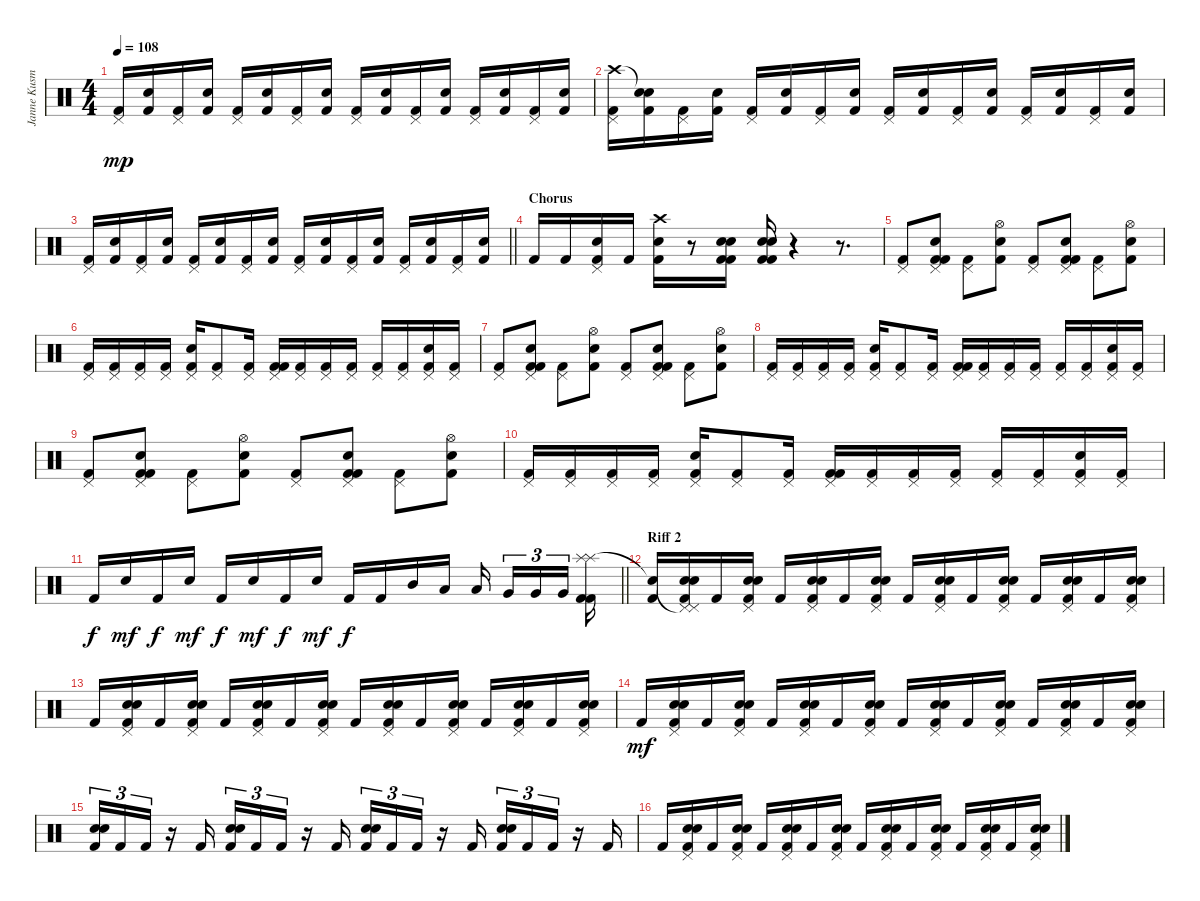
\track ("Janne Kusmin" "Janne Kusm") {instrument percussion}
\staff {score}
\articulation defaults
\ts (4 4)
\tempo 108
\clef neutral
\ks c
("Pedal Hi-Hat (hit)" "Kick (hit) 2").16{dy mp} ("Snare (hit) 2" "Kick (hit) 2").16 ("Pedal Hi-Hat (hit)" "Kick (hit) 2").16 ("Snare (hit) 2" "Kick (hit) 2").16 ("Pedal Hi-Hat (hit)" "Kick (hit) 2").16 ("Snare (hit) 2" "Kick (hit) 2").16 ("Pedal Hi-Hat (hit)" "Kick (hit) 2").16 ("Snare (hit) 2" "Kick (hit) 2").16 ("Pedal Hi-Hat (hit)" "Kick (hit) 2").16 ("Snare (hit) 2" "Kick (hit) 2").16 ("Pedal Hi-Hat (hit)" "Kick (hit) 2").16 ("Snare (hit) 2" "Kick (hit) 2").16 ("Pedal Hi-Hat (hit)" "Kick (hit) 2").16 ("Snare (hit) 2" "Kick (hit) 2").16 ("Pedal Hi-Hat (hit)" "Kick (hit) 2").16 ("Snare (hit) 2" "Kick (hit) 2").16 |
("Crash high (hit)" "Pedal Hi-Hat (hit)" "Kick (hit) 2").16 ("Snare (hit)"{t} "Snare (hit) 2" "Kick (hit) 2").16 ("Pedal Hi-Hat (hit)" "Kick (hit) 2").16 ("Snare (hit) 2" "Kick (hit) 2").16 ("Pedal Hi-Hat (hit)" "Kick (hit) 2").16 ("Snare (hit) 2" "Kick (hit) 2").16 ("Pedal Hi-Hat (hit)" "Kick (hit) 2").16 ("Snare (hit) 2" "Kick (hit) 2").16 ("Pedal Hi-Hat (hit)" "Kick (hit) 2").16 ("Snare (hit) 2" "Kick (hit) 2").16 ("Pedal Hi-Hat (hit)" "Kick (hit) 2").16 ("Snare (hit) 2" "Kick (hit) 2").16 ("Pedal Hi-Hat (hit)" "Kick (hit) 2").16 ("Snare (hit) 2" "Kick (hit) 2").16 ("Pedal Hi-Hat (hit)" "Kick (hit) 2").16 ("Snare (hit) 2" "Kick (hit) 2").16 |
\barLineRight lightlight
("Pedal Hi-Hat (hit)" "Kick (hit) 2").16 ("Snare (hit) 2" "Kick (hit) 2").16 ("Pedal Hi-Hat (hit)" "Kick (hit) 2").16 ("Snare (hit) 2" "Kick (hit) 2").16 ("Pedal Hi-Hat (hit)" "Kick (hit) 2").16 ("Snare (hit) 2" "Kick (hit) 2").16 ("Pedal Hi-Hat (hit)" "Kick (hit) 2").16 ("Snare (hit) 2" "Kick (hit) 2").16 ("Pedal Hi-Hat (hit)" "Kick (hit) 2").16 ("Snare (hit) 2" "Kick (hit) 2").16 ("Pedal Hi-Hat (hit)" "Kick (hit) 2").16 ("Snare (hit) 2" "Kick (hit) 2").16 ("Pedal Hi-Hat (hit)" "Kick (hit) 2").16 ("Snare (hit) 2" "Kick (hit) 2").16 ("Pedal Hi-Hat (hit)" "Kick (hit) 2").16 ("Snare (hit) 2" "Kick (hit) 2").16 |
\section ("" "Chorus")
"Kick (hit) 2".16 "Kick (hit) 2".16 ("Pedal Hi-Hat (hit)" "Snare (hit) 2" "Kick (hit) 2").16 "Kick (hit) 2".16 ("Crash high (hit)" "Snare (hit) 2" "Kick (hit) 2").16 r.8 ("Snare (hit) 2" "Snare (hit) 2" "Kick (hit) 2" "Kick (hit) 2").16 ("Snare (hit) 2" "Snare (hit) 2" "Kick (hit) 2" "Kick (hit) 2").16 r.4 r.8{d} |
("Pedal Hi-Hat (hit)" "Kick (hit) 2").8 ("Pedal Hi-Hat (hit)" "Snare (hit) 2" "Kick (hit) 2" "Kick (hit) 2").8 ("Pedal Hi-Hat (hit)" "Kick (hit) 2").8 ("Hi-Hat (open)" "Snare (hit) 2" "Kick (hit) 2").8 ("Pedal Hi-Hat (hit)" "Kick (hit) 2").8 ("Pedal Hi-Hat (hit)" "Snare (hit) 2" "Kick (hit) 2" "Kick (hit) 2").8 ("Pedal Hi-Hat (hit)" "Kick (hit) 2").8 ("Hi-Hat (open)" "Snare (hit) 2" "Kick (hit) 2").8 |
("Pedal Hi-Hat (hit)" "Kick (hit) 2").16 ("Pedal Hi-Hat (hit)" "Kick (hit) 2").16 ("Pedal Hi-Hat (hit)" "Kick (hit) 2").16 ("Pedal Hi-Hat (hit)" "Kick (hit) 2").16 ("Pedal Hi-Hat (hit)" "Snare (hit) 2" "Kick (hit) 2").16 ("Pedal Hi-Hat (hit)" "Kick (hit) 2").8 ("Pedal Hi-Hat (hit)" "Kick (hit) 2").16 ("Pedal Hi-Hat (hit)" "Kick (hit) 2" "Kick (hit) 2").16 ("Pedal Hi-Hat (hit)" "Kick (hit) 2").16 ("Pedal Hi-Hat (hit)" "Kick (hit) 2").16 ("Pedal Hi-Hat (hit)" "Kick (hit) 2").16 ("Pedal Hi-Hat (hit)" "Kick (hit) 2").16 ("Pedal Hi-Hat (hit)" "Kick (hit) 2").16 ("Pedal Hi-Hat (hit)" "Snare (hit) 2" "Kick (hit) 2").16 ("Pedal Hi-Hat (hit)" "Kick (hit) 2").16 |
("Pedal Hi-Hat (hit)" "Kick (hit) 2").8 ("Pedal Hi-Hat (hit)" "Snare (hit) 2" "Kick (hit) 2" "Kick (hit) 2").8 ("Pedal Hi-Hat (hit)" "Kick (hit) 2").8 ("Hi-Hat (open)" "Snare (hit) 2" "Kick (hit) 2").8 ("Pedal Hi-Hat (hit)" "Kick (hit) 2").8 ("Pedal Hi-Hat (hit)" "Snare (hit) 2" "Kick (hit) 2" "Kick (hit) 2").8 ("Pedal Hi-Hat (hit)" "Kick (hit) 2").8 ("Hi-Hat (open)" "Snare (hit) 2" "Kick (hit) 2").8 |
("Pedal Hi-Hat (hit)" "Kick (hit) 2").16 ("Pedal Hi-Hat (hit)" "Kick (hit) 2").16 ("Pedal Hi-Hat (hit)" "Kick (hit) 2").16 ("Pedal Hi-Hat (hit)" "Kick (hit) 2").16 ("Pedal Hi-Hat (hit)" "Snare (hit) 2" "Kick (hit) 2").16 ("Pedal Hi-Hat (hit)" "Kick (hit) 2").8 ("Pedal Hi-Hat (hit)" "Kick (hit) 2").16 ("Pedal Hi-Hat (hit)" "Kick (hit) 2" "Kick (hit) 2").16 ("Pedal Hi-Hat (hit)" "Kick (hit) 2").16 ("Pedal Hi-Hat (hit)" "Kick (hit) 2").16 ("Pedal Hi-Hat (hit)" "Kick (hit) 2").16 ("Pedal Hi-Hat (hit)" "Kick (hit) 2").16 ("Pedal Hi-Hat (hit)" "Kick (hit) 2").16 ("Pedal Hi-Hat (hit)" "Snare (hit) 2" "Kick (hit) 2").16 ("Pedal Hi-Hat (hit)" "Kick (hit) 2").16 |
("Pedal Hi-Hat (hit)" "Kick (hit) 2").8 ("Pedal Hi-Hat (hit)" "Snare (hit) 2" "Kick (hit) 2" "Kick (hit) 2").8 ("Pedal Hi-Hat (hit)" "Kick (hit) 2").8 ("Hi-Hat (open)" "Snare (hit) 2" "Kick (hit) 2").8 ("Pedal Hi-Hat (hit)" "Kick (hit) 2").8 ("Pedal Hi-Hat (hit)" "Snare (hit) 2" "Kick (hit) 2" "Kick (hit) 2").8 ("Pedal Hi-Hat (hit)" "Kick (hit) 2").8 ("Hi-Hat (open)" "Snare (hit) 2" "Kick (hit) 2").8 |
("Pedal Hi-Hat (hit)" "Kick (hit) 2").16 ("Pedal Hi-Hat (hit)" "Kick (hit) 2").16 ("Pedal Hi-Hat (hit)" "Kick (hit) 2").16 ("Pedal Hi-Hat (hit)" "Kick (hit) 2").16 ("Pedal Hi-Hat (hit)" "Snare (hit) 2" "Kick (hit) 2").16 ("Pedal Hi-Hat (hit)" "Kick (hit) 2").8 ("Pedal Hi-Hat (hit)" "Kick (hit) 2").16 ("Pedal Hi-Hat (hit)" "Kick (hit) 2" "Kick (hit) 2").16 ("Pedal Hi-Hat (hit)" "Kick (hit) 2").16 ("Pedal Hi-Hat (hit)" "Kick (hit) 2").16 ("Pedal Hi-Hat (hit)" "Kick (hit) 2").16 ("Pedal Hi-Hat (hit)" "Kick (hit) 2").16 ("Pedal Hi-Hat (hit)" "Kick (hit) 2").16 ("Pedal Hi-Hat (hit)" "Snare (hit) 2" "Kick (hit) 2").16 ("Pedal Hi-Hat (hit)" "Kick (hit) 2").16 |
\barLineRight lightlight "Kick (hit) 2".16{dy f} "Snare (hit) 2".16{dy mf} "Kick (hit) 2".16{dy f} "Snare (hit) 2".16{dy mf} "Kick (hit) 2".16{dy f} "Snare (hit) 2".16{dy mf} "Kick (hit) 2".16{dy f} "Snare (hit) 2".16{dy mf} "Kick (hit) 2".16{dy f} "Kick (hit) 2".16 "Mid Tom (hit)".16 "Low Tom (hit)".16 "Low Tom (hit)".16{beam splitsecondary} "Very Low Tom (hit)".16{tu (3 2)} "Very Low Tom (hit)".16{tu (3 2)} "Very Low Tom (hit)".16{tu (3 2) beam splitsecondary}
("Splash (hit)" "Splash (hit)" "Kick (hit) 2" "Kick (hit) 2").16 |
\section ("" "Riff 2")
("Snare (hit)"{t} "Kick (hit) 2").16 ("Pedal Hi-Hat (hit)"{t} "Pedal Hi-Hat (hit)" "Snare (hit) 2" "Snare (hit) 2" "Kick (hit) 2").16 "Kick (hit) 2".16 ("Pedal Hi-Hat (hit)" "Snare (hit) 2" "Snare (hit) 2" "Kick (hit) 2").16 "Kick (hit) 2".16 ("Pedal Hi-Hat (hit)" "Snare (hit) 2" "Snare (hit) 2" "Kick (hit) 2").16 "Kick (hit) 2".16 ("Pedal Hi-Hat (hit)" "Snare (hit) 2" "Snare (hit) 2" "Kick (hit) 2").16 "Kick (hit) 2".16 ("Pedal Hi-Hat (hit)" "Snare (hit) 2" "Snare (hit) 2" "Kick (hit) 2").16 "Kick (hit) 2".16 ("Pedal Hi-Hat (hit)" "Snare (hit) 2" "Snare (hit) 2" "Kick (hit) 2").16 "Kick (hit) 2".16 ("Pedal Hi-Hat (hit)" "Snare (hit) 2" "Snare (hit) 2" "Kick (hit) 2").16 "Kick (hit) 2".16 ("Pedal Hi-Hat (hit)" "Snare (hit) 2" "Snare (hit) 2" "Kick (hit) 2").16 |
"Kick (hit) 2".16 ("Pedal Hi-Hat (hit)" "Snare (hit) 2" "Snare (hit) 2" "Kick (hit) 2").16 "Kick (hit) 2".16 ("Pedal Hi-Hat (hit)" "Snare (hit) 2" "Snare (hit) 2" "Kick (hit) 2").16 "Kick (hit) 2".16 ("Pedal Hi-Hat (hit)" "Snare (hit) 2" "Snare (hit) 2" "Kick (hit) 2").16 "Kick (hit) 2".16 ("Pedal Hi-Hat (hit)" "Snare (hit) 2" "Snare (hit) 2" "Kick (hit) 2").16 "Kick (hit) 2".16 ("Pedal Hi-Hat (hit)" "Snare (hit) 2" "Snare (hit) 2" "Kick (hit) 2").16 "Kick (hit) 2".16 ("Pedal Hi-Hat (hit)" "Snare (hit) 2" "Snare (hit) 2" "Kick (hit) 2").16 "Kick (hit) 2".16 ("Pedal Hi-Hat (hit)" "Snare (hit) 2" "Snare (hit) 2" "Kick (hit) 2").16 "Kick (hit) 2".16 ("Pedal Hi-Hat (hit)" "Snare (hit) 2" "Snare (hit) 2" "Kick (hit) 2").16 |
"Kick (hit) 2".16{dy mf} ("Pedal Hi-Hat (hit)" "Snare (hit) 2" "Snare (hit) 2" "Kick (hit) 2").16 "Kick (hit) 2".16 ("Pedal Hi-Hat (hit)" "Snare (hit) 2" "Snare (hit) 2" "Kick (hit) 2").16 "Kick (hit) 2".16 ("Pedal Hi-Hat (hit)" "Snare (hit) 2" "Snare (hit) 2" "Kick (hit) 2").16 "Kick (hit) 2".16 ("Pedal Hi-Hat (hit)" "Snare (hit) 2" "Snare (hit) 2" "Kick (hit) 2").16 "Kick (hit) 2".16 ("Pedal Hi-Hat (hit)" "Snare (hit) 2" "Snare (hit) 2" "Kick (hit) 2").16 "Kick (hit) 2".16 ("Pedal Hi-Hat (hit)" "Snare (hit) 2" "Snare (hit) 2" "Kick (hit) 2").16 "Kick (hit) 2".16 ("Pedal Hi-Hat (hit)" "Snare (hit) 2" "Snare (hit) 2" "Kick (hit) 2").16 "Kick (hit) 2".16 ("Pedal Hi-Hat (hit)" "Snare (hit) 2" "Snare (hit) 2" "Kick (hit) 2").16 |
("Kick (hit) 2" "Snare (hit) 2" "Snare (hit) 2").16{tu (3 2)} "Kick (hit) 2".16{tu (3 2)} "Kick (hit) 2".16{tu (3 2)} r.16 "Kick (hit) 2".16 ("Kick (hit) 2" "Snare (hit) 2" "Snare (hit) 2").16{tu (3 2)} "Kick (hit) 2".16{tu (3 2)} "Kick (hit) 2".16{tu (3 2)} r.16 "Kick (hit) 2".16 ("Kick (hit) 2" "Snare (hit) 2" "Snare (hit) 2").16{tu (3 2)} "Kick (hit) 2".16{tu (3 2)} "Kick (hit) 2".16{tu (3 2)} r.16 "Kick (hit) 2".16 ("Kick (hit) 2" "Snare (hit) 2" "Snare (hit) 2").16{tu (3 2)} "Kick (hit) 2".16{tu (3 2)} "Kick (hit) 2".16{tu (3 2)} r.16 "Kick (hit) 2".16 |
"Kick (hit) 2".16 ("Pedal Hi-Hat (hit)" "Snare (hit) 2" "Snare (hit) 2" "Kick (hit) 2").16 "Kick (hit) 2".16 ("Pedal Hi-Hat (hit)" "Snare (hit) 2" "Snare (hit) 2" "Kick (hit) 2").16 "Kick (hit) 2".16 ("Pedal Hi-Hat (hit)" "Snare (hit) 2" "Snare (hit) 2" "Kick (hit) 2").16 "Kick (hit) 2".16 ("Pedal Hi-Hat (hit)" "Snare (hit) 2" "Snare (hit) 2" "Kick (hit) 2").16 "Kick (hit) 2".16 ("Pedal Hi-Hat (hit)" "Snare (hit) 2" "Snare (hit) 2" "Kick (hit) 2").16 "Kick (hit) 2".16 ("Pedal Hi-Hat (hit)" "Snare (hit) 2" "Snare (hit) 2" "Kick (hit) 2").16 "Kick (hit) 2".16 ("Pedal Hi-Hat (hit)" "Snare (hit) 2" "Snare (hit) 2" "Kick (hit) 2").16 "Kick (hit) 2".16 ("Pedal Hi-Hat (hit)" "Snare (hit) 2" "Snare (hit) 2" "Kick (hit) 2").16
